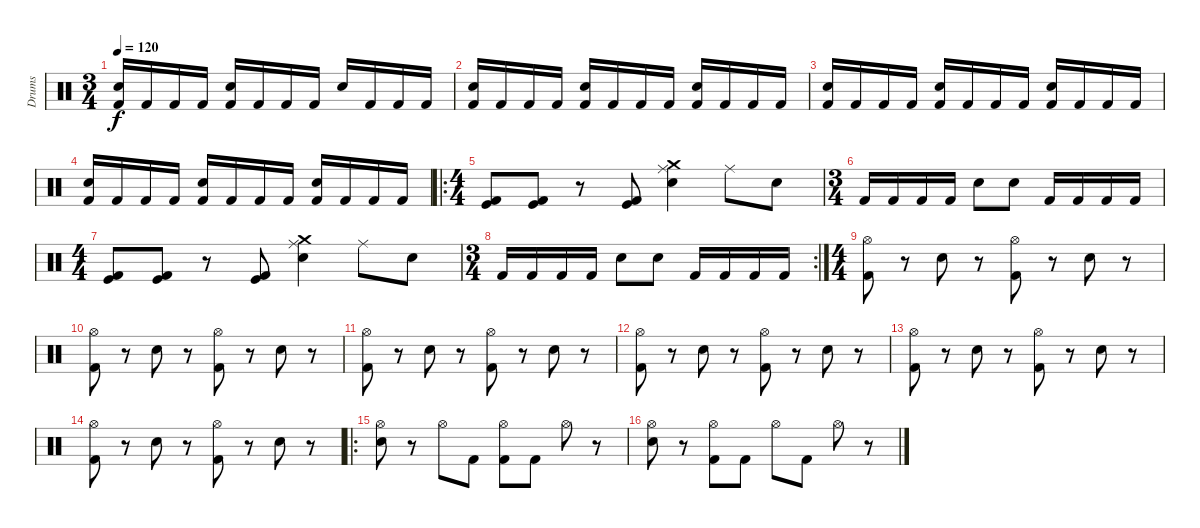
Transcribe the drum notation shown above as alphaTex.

\track ("Drums" "Drums") {instrument percussion}
\staff {score}
\articulation defaults
\ts (3 4)
\tempo 120
\clef neutral
\ks c
("Electric Snare (hit)" "Kick (hit) 2").16{dy f} "Kick (hit) 2".16 "Kick (hit) 2".16 "Kick (hit) 2".16 ("Electric Snare (hit)" "Kick (hit) 2").16 "Kick (hit) 2".16 "Kick (hit) 2".16 "Kick (hit) 2".16 "Electric Snare (hit)".16 "Kick (hit) 2".16 "Kick (hit) 2".16 "Kick (hit) 2".16 |
("Electric Snare (hit)" "Kick (hit) 2").16 "Kick (hit) 2".16 "Kick (hit) 2".16 "Kick (hit) 2".16 ("Electric Snare (hit)" "Kick (hit) 2").16 "Kick (hit) 2".16 "Kick (hit) 2".16 "Kick (hit) 2".16 ("Electric Snare (hit)" "Kick (hit) 2").16 "Kick (hit) 2".16 "Kick (hit) 2".16 "Kick (hit) 2".16 |
("Electric Snare (hit)" "Kick (hit) 2").16 "Kick (hit) 2".16 "Kick (hit) 2".16 "Kick (hit) 2".16 ("Electric Snare (hit)" "Kick (hit) 2").16 "Kick (hit) 2".16 "Kick (hit) 2".16 "Kick (hit) 2".16 ("Electric Snare (hit)" "Kick (hit) 2").16 "Kick (hit) 2".16 "Kick (hit) 2".16 "Kick (hit) 2".16 |
("Electric Snare (hit)" "Kick (hit) 2").16 "Kick (hit) 2".16 "Kick (hit) 2".16 "Kick (hit) 2".16 ("Electric Snare (hit)" "Kick (hit) 2").16 "Kick (hit) 2".16 "Kick (hit) 2".16 "Kick (hit) 2".16 ("Electric Snare (hit)" "Kick (hit) 2").16 "Kick (hit) 2".16 "Kick (hit) 2".16 "Kick (hit) 2".16 |
\ro
\ts (4 4)
("Kick (hit)" "Kick (hit) 2").8 ("Kick (hit)" "Kick (hit) 2").8 r.8 ("Kick (hit)" "Kick (hit) 2").8 ("Ride (middle)" "Crash medium (hit)" "Electric Snare (hit)").4 "Ride (middle)".8 "Electric Snare (hit)".8 |
\ts (3 4)
"Kick (hit) 2".16 "Kick (hit) 2".16 "Kick (hit) 2".16 "Kick (hit) 2".16 "Electric Snare (hit)".8 "Electric Snare (hit)".8 "Kick (hit) 2".16 "Kick (hit) 2".16 "Kick (hit) 2".16 "Kick (hit) 2".16 |
\ts (4 4)
("Kick (hit)" "Kick (hit) 2").8 ("Kick (hit)" "Kick (hit) 2").8 r.8 ("Kick (hit)" "Kick (hit) 2").8 ("Ride (middle)" "Crash medium (hit)" "Electric Snare (hit)").4 "Ride (middle)".8 "Electric Snare (hit)".8 |
\rc 2
\ts (3 4)
"Kick (hit) 2".16 "Kick (hit) 2".16 "Kick (hit) 2".16 "Kick (hit) 2".16 "Electric Snare (hit)".8 "Electric Snare (hit)".8 "Kick (hit) 2".16 "Kick (hit) 2".16 "Kick (hit) 2".16 "Kick (hit) 2".16 |
\ts (4 4)
("Hi-Hat (open)" "Kick (hit) 2").8 r.8 "Electric Snare (hit)".8 r.8 ("Hi-Hat (open)" "Kick (hit) 2").8 r.8 "Electric Snare (hit)".8 r.8 |
("Hi-Hat (open)" "Kick (hit) 2").8 r.8 "Electric Snare (hit)".8 r.8 ("Hi-Hat (open)" "Kick (hit) 2").8 r.8 "Electric Snare (hit)".8 r.8 |
("Hi-Hat (open)" "Kick (hit) 2").8 r.8 "Electric Snare (hit)".8 r.8 ("Hi-Hat (open)" "Kick (hit) 2").8 r.8 "Electric Snare (hit)".8 r.8 |
("Hi-Hat (open)" "Kick (hit) 2").8 r.8 "Electric Snare (hit)".8 r.8 ("Hi-Hat (open)" "Kick (hit) 2").8 r.8 "Electric Snare (hit)".8 r.8 |
("Hi-Hat (open)" "Kick (hit) 2").8 r.8 "Electric Snare (hit)".8 r.8 ("Hi-Hat (open)" "Kick (hit) 2").8 r.8 "Electric Snare (hit)".8 r.8 |
("Hi-Hat (open)" "Kick (hit) 2").8 r.8 "Electric Snare (hit)".8 r.8 ("Hi-Hat (open)" "Kick (hit) 2").8 r.8 "Electric Snare (hit)".8 r.8 |
\ro
("Hi-Hat (open)" "Electric Snare (hit)").8 r.8 "Hi-Hat (open)".8 "Kick (hit) 2".8 ("Hi-Hat (open)" "Kick (hit) 2").8 "Kick (hit) 2".8 "Hi-Hat (open)".8 r.8 |
("Hi-Hat (open)" "Electric Snare (hit)").8 r.8 ("Hi-Hat (open)" "Kick (hit) 2").8 "Kick (hit) 2".8 "Hi-Hat (open)".8 "Kick (hit) 2".8 "Hi-Hat (open)".8 r.8
